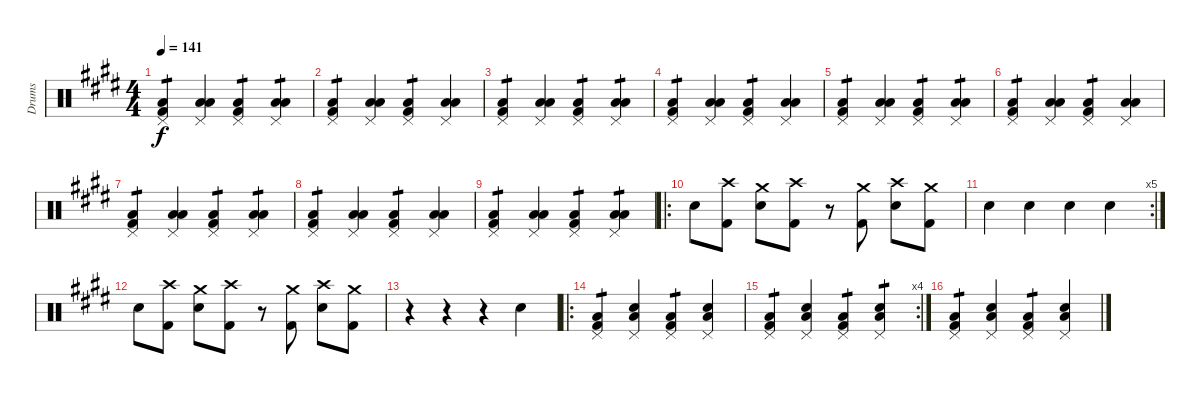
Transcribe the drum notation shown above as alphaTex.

\track ("Drums" "Drums") {instrument percussion}
\staff {score}
\articulation defaults
\ts (4 4)
\tempo 141
\clef neutral
\ks e
("Kick (hit) 2" "Pedal Hi-Hat (hit)" "Low Floor Tom (hit)").4{tp 1 dy f} ("Low Floor Tom (hit)" "Pedal Hi-Hat (hit)" "Low Floor Tom (hit)").4 ("Kick (hit) 2" "Pedal Hi-Hat (hit)" "Low Floor Tom (hit)").4{tp 1} ("Low Floor Tom (hit)" "Pedal Hi-Hat (hit)" "Low Floor Tom (hit)").4{tp 1} |
("Kick (hit) 2" "Pedal Hi-Hat (hit)" "Low Floor Tom (hit)").4{tp 1} ("Low Floor Tom (hit)" "Pedal Hi-Hat (hit)" "Low Floor Tom (hit)").4 ("Kick (hit) 2" "Pedal Hi-Hat (hit)" "Low Floor Tom (hit)").4{tp 1} ("Low Floor Tom (hit)" "Pedal Hi-Hat (hit)" "Low Floor Tom (hit)").4 |
("Kick (hit) 2" "Pedal Hi-Hat (hit)" "Low Floor Tom (hit)").4{tp 1} ("Low Floor Tom (hit)" "Pedal Hi-Hat (hit)" "Low Floor Tom (hit)").4 ("Kick (hit) 2" "Pedal Hi-Hat (hit)" "Low Floor Tom (hit)").4{tp 1} ("Low Floor Tom (hit)" "Pedal Hi-Hat (hit)" "Low Floor Tom (hit)").4{tp 1} |
("Kick (hit) 2" "Pedal Hi-Hat (hit)" "Low Floor Tom (hit)").4{tp 1} ("Low Floor Tom (hit)" "Pedal Hi-Hat (hit)" "Low Floor Tom (hit)").4 ("Kick (hit) 2" "Pedal Hi-Hat (hit)" "Low Floor Tom (hit)").4{tp 1} ("Low Floor Tom (hit)" "Pedal Hi-Hat (hit)" "Low Floor Tom (hit)").4 |
("Kick (hit) 2" "Pedal Hi-Hat (hit)" "Low Floor Tom (hit)").4{tp 1} ("Low Floor Tom (hit)" "Pedal Hi-Hat (hit)" "Low Floor Tom (hit)").4 ("Kick (hit) 2" "Pedal Hi-Hat (hit)" "Low Floor Tom (hit)").4{tp 1} ("Low Floor Tom (hit)" "Pedal Hi-Hat (hit)" "Low Floor Tom (hit)").4{tp 1} |
("Kick (hit) 2" "Pedal Hi-Hat (hit)" "Low Floor Tom (hit)").4{tp 1} ("Low Floor Tom (hit)" "Pedal Hi-Hat (hit)" "Low Floor Tom (hit)").4 ("Kick (hit) 2" "Pedal Hi-Hat (hit)" "Low Floor Tom (hit)").4{tp 1} ("Low Floor Tom (hit)" "Pedal Hi-Hat (hit)" "Low Floor Tom (hit)").4 |
("Kick (hit) 2" "Pedal Hi-Hat (hit)" "Low Floor Tom (hit)").4{tp 1} ("Low Floor Tom (hit)" "Pedal Hi-Hat (hit)" "Low Floor Tom (hit)").4 ("Kick (hit) 2" "Pedal Hi-Hat (hit)" "Low Floor Tom (hit)").4{tp 1} ("Low Floor Tom (hit)" "Pedal Hi-Hat (hit)" "Low Floor Tom (hit)").4{tp 1} |
("Kick (hit) 2" "Pedal Hi-Hat (hit)" "Low Floor Tom (hit)").4{tp 1} ("Low Floor Tom (hit)" "Pedal Hi-Hat (hit)" "Low Floor Tom (hit)").4 ("Kick (hit) 2" "Pedal Hi-Hat (hit)" "Low Floor Tom (hit)").4{tp 1} ("Low Floor Tom (hit)" "Pedal Hi-Hat (hit)" "Low Floor Tom (hit)").4 |
("Kick (hit) 2" "Pedal Hi-Hat (hit)" "Low Floor Tom (hit)").4{tp 1} ("Low Floor Tom (hit)" "Pedal Hi-Hat (hit)" "Low Floor Tom (hit)").4 ("Kick (hit) 2" "Pedal Hi-Hat (hit)" "Low Floor Tom (hit)").4{tp 1} ("Low Floor Tom (hit)" "Pedal Hi-Hat (hit)" "Low Floor Tom (hit)").4{tp 1} |
\ro "Snare (hit) 2".8
("Kick (hit) 2" "Crash high (hit)").8 ("Snare (hit) 2" "Crash medium (hit)").8 ("Kick (hit) 2" "Crash high (hit)").8 r.8 ("Kick (hit) 2" "Crash medium (hit)").8 ("Snare (hit) 2" "Crash high (hit)").8 ("Kick (hit) 2" "Crash medium (hit)").8 |
\rc 5 "Snare (hit) 2".4 "Snare (hit) 2".4 "Snare (hit) 2".4 "Snare (hit) 2".4
|
"Snare (hit) 2".8 ("Kick (hit) 2" "Crash high (hit)").8 ("Snare (hit) 2" "Crash medium (hit)").8 ("Kick (hit) 2" "Crash high (hit)").8 r.8 ("Kick (hit) 2" "Crash medium (hit)").8 ("Snare (hit) 2" "Crash high (hit)").8 ("Kick (hit) 2" "Crash medium (hit)").8 |
r.4 r.4 r.4 "Snare (hit) 2".4 |
\ro
("Kick (hit) 2" "Pedal Hi-Hat (hit)" "Low Floor Tom (hit)").4{tp 1} ("Snare (hit) 2" "Pedal Hi-Hat (hit)" "Low Floor Tom (hit)").4 ("Kick (hit) 2" "Pedal Hi-Hat (hit)" "Low Floor Tom (hit)").4{tp 1} ("Snare (hit) 2" "Pedal Hi-Hat (hit)" "Low Floor Tom (hit)").4 |
\rc 4
("Kick (hit) 2" "Pedal Hi-Hat (hit)" "Low Floor Tom (hit)").4{tp 1} ("Snare (hit) 2" "Pedal Hi-Hat (hit)" "Low Floor Tom (hit)").4 ("Kick (hit) 2" "Pedal Hi-Hat (hit)" "Low Floor Tom (hit)").4{tp 1} ("Snare (hit) 2" "Pedal Hi-Hat (hit)" "Low Floor Tom (hit)").4{tp 1} |
("Kick (hit) 2" "Pedal Hi-Hat (hit)" "Low Floor Tom (hit)").4{tp 1} ("Snare (hit) 2" "Pedal Hi-Hat (hit)" "Low Floor Tom (hit)").4 ("Kick (hit) 2" "Pedal Hi-Hat (hit)" "Low Floor Tom (hit)").4{tp 1} ("Snare (hit) 2" "Pedal Hi-Hat (hit)" "Low Floor Tom (hit)").4
